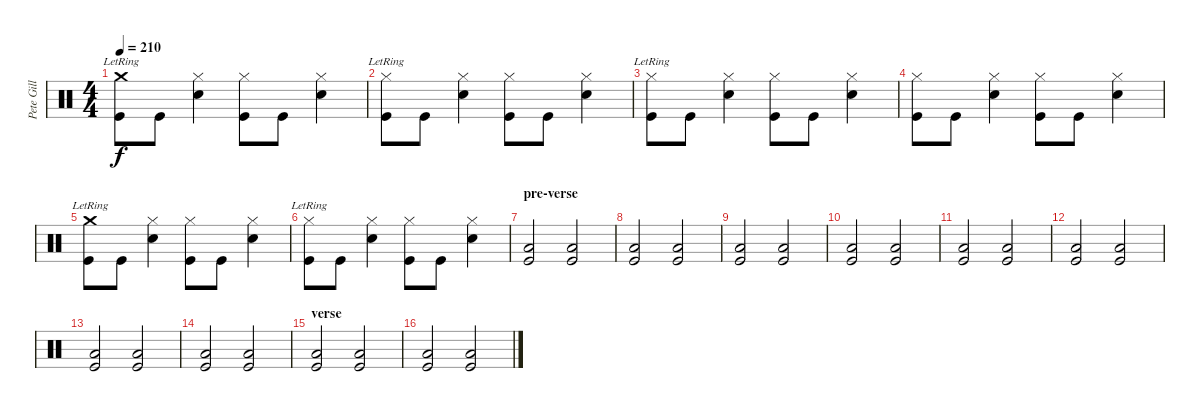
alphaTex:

\track ("Pete Gill" "Pete Gill") {instrument percussion}
\staff {score}
\articulation defaults
\ts (4 4)
\tempo 210
\clef neutral
\ks c
("Crash medium (hit)"{lr} "Kick (hit)").8{dy f} "Kick (hit)".8 ("Hi-Hat (closed)" "Snare (hit) 2").4 ("Hi-Hat (closed)" "Kick (hit)").8 "Kick (hit)".8 ("Hi-Hat (closed)" "Snare (hit) 2").4 |
("Hi-Hat (closed)"{lr} "Kick (hit)").8 "Kick (hit)".8 ("Hi-Hat (closed)" "Snare (hit) 2").4 ("Hi-Hat (closed)" "Kick (hit)").8 "Kick (hit)".8 ("Hi-Hat (closed)" "Snare (hit) 2").4 |
("Hi-Hat (closed)"{lr} "Kick (hit)").8 "Kick (hit)".8 ("Hi-Hat (closed)" "Snare (hit) 2").4 ("Hi-Hat (closed)" "Kick (hit)").8 "Kick (hit)".8 ("Hi-Hat (closed)" "Snare (hit) 2").4 |
("Hi-Hat (closed)" "Kick (hit)").8 "Kick (hit)".8 ("Hi-Hat (closed)" "Snare (hit) 2").4 ("Hi-Hat (closed)" "Kick (hit)").8 "Kick (hit)".8 ("Hi-Hat (closed)" "Snare (hit) 2").4 |
("Crash medium (hit)"{lr} "Kick (hit)").8 "Kick (hit)".8 ("Hi-Hat (closed)" "Snare (hit) 2").4 ("Hi-Hat (closed)" "Kick (hit)").8 "Kick (hit)".8 ("Hi-Hat (closed)" "Snare (hit) 2").4 |
("Hi-Hat (closed)"{lr} "Kick (hit)").8 "Kick (hit)".8 ("Hi-Hat (closed)" "Snare (hit) 2").4 ("Hi-Hat (closed)" "Kick (hit)").8 "Kick (hit)".8 ("Hi-Hat (closed)" "Snare (hit) 2").4 |
\section ("" "pre-verse")
("Low Floor Tom (hit)" "Kick (hit)").2 ("Low Floor Tom (hit)" "Kick (hit)").2 |
("Low Floor Tom (hit)" "Kick (hit)").2 ("Low Floor Tom (hit)" "Kick (hit)").2 |
("Low Floor Tom (hit)" "Kick (hit)").2 ("Low Floor Tom (hit)" "Kick (hit)").2 |
("Low Floor Tom (hit)" "Kick (hit)").2 ("Low Floor Tom (hit)" "Kick (hit)").2 |
("Low Floor Tom (hit)" "Kick (hit)").2 ("Low Floor Tom (hit)" "Kick (hit)").2 |
("Low Floor Tom (hit)" "Kick (hit)").2 ("Low Floor Tom (hit)" "Kick (hit)").2 |
("Low Floor Tom (hit)" "Kick (hit)").2 ("Low Floor Tom (hit)" "Kick (hit)").2 |
("Low Floor Tom (hit)" "Kick (hit)").2 ("Low Floor Tom (hit)" "Kick (hit)").2 |
\section ("" "verse")
("Low Floor Tom (hit)" "Kick (hit)").2 ("Low Floor Tom (hit)" "Kick (hit)").2 |
("Low Floor Tom (hit)" "Kick (hit)").2 ("Low Floor Tom (hit)" "Kick (hit)").2
